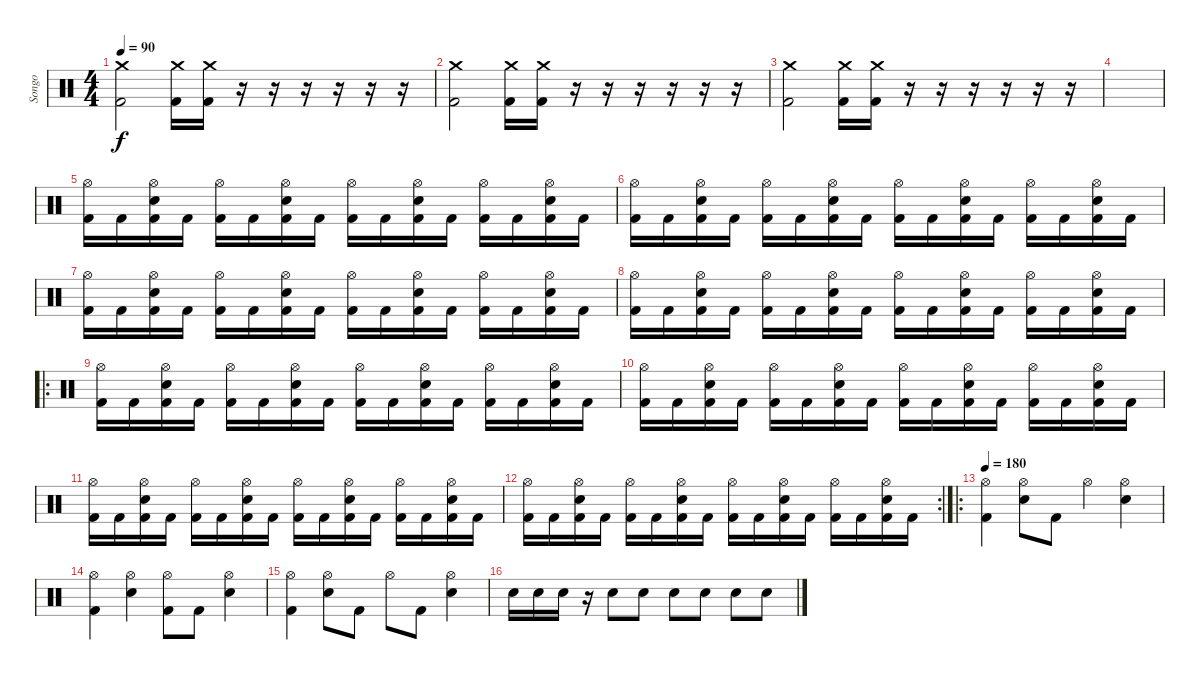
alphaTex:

\track ("Songo" "Songo") {instrument percussion}
\staff {score}
\articulation defaults
\ts (4 4)
\tempo 90
\clef neutral
\ks c
("Crash medium (hit)" "Kick (hit) 2").2{dy f} ("Crash medium (hit)" "Kick (hit) 2").16 ("Crash medium (hit)" "Kick (hit) 2").16 r.16 r.16 r.16 r.16 r.16 r.16 |
("Crash medium (hit)" "Kick (hit) 2").2 ("Crash medium (hit)" "Kick (hit) 2").16 ("Crash medium (hit)" "Kick (hit) 2").16 r.16 r.16 r.16 r.16 r.16 r.16 |
("Crash medium (hit)" "Kick (hit) 2").2 ("Crash medium (hit)" "Kick (hit) 2").16 ("Crash medium (hit)" "Kick (hit) 2").16 r.16 r.16 r.16 r.16 r.16 r.16 |
|
("Hi-Hat (open)" "Kick (hit) 2").16 "Kick (hit) 2".16 ("Kick (hit) 2" "Snare (hit) 2" "Hi-Hat (open)").16 "Kick (hit) 2".16 ("Kick (hit) 2" "Hi-Hat (open)").16 "Kick (hit) 2".16 ("Kick (hit) 2" "Snare (hit) 2" "Hi-Hat (open)").16 "Kick (hit) 2".16 ("Kick (hit) 2" "Hi-Hat (open)").16 "Kick (hit) 2".16 ("Kick (hit) 2" "Snare (hit) 2" "Hi-Hat (open)").16 "Kick (hit) 2".16 ("Kick (hit) 2" "Hi-Hat (open)").16 "Kick (hit) 2".16 ("Kick (hit) 2" "Snare (hit) 2" "Hi-Hat (open)").16 "Kick (hit) 2".16 |
("Hi-Hat (open)" "Kick (hit) 2").16 "Kick (hit) 2".16 ("Kick (hit) 2" "Snare (hit) 2" "Hi-Hat (open)").16 "Kick (hit) 2".16 ("Kick (hit) 2" "Hi-Hat (open)").16 "Kick (hit) 2".16 ("Kick (hit) 2" "Snare (hit) 2" "Hi-Hat (open)").16 "Kick (hit) 2".16 ("Kick (hit) 2" "Hi-Hat (open)").16 "Kick (hit) 2".16 ("Kick (hit) 2" "Snare (hit) 2" "Hi-Hat (open)").16 "Kick (hit) 2".16 ("Kick (hit) 2" "Hi-Hat (open)").16 "Kick (hit) 2".16 ("Kick (hit) 2" "Snare (hit) 2" "Hi-Hat (open)").16 "Kick (hit) 2".16 |
("Hi-Hat (open)" "Kick (hit) 2").16 "Kick (hit) 2".16 ("Kick (hit) 2" "Snare (hit) 2" "Hi-Hat (open)").16 "Kick (hit) 2".16 ("Kick (hit) 2" "Hi-Hat (open)").16 "Kick (hit) 2".16 ("Kick (hit) 2" "Snare (hit) 2" "Hi-Hat (open)").16 "Kick (hit) 2".16 ("Kick (hit) 2" "Hi-Hat (open)").16 "Kick (hit) 2".16 ("Kick (hit) 2" "Snare (hit) 2" "Hi-Hat (open)").16 "Kick (hit) 2".16 ("Kick (hit) 2" "Hi-Hat (open)").16 "Kick (hit) 2".16 ("Kick (hit) 2" "Snare (hit) 2" "Hi-Hat (open)").16 "Kick (hit) 2".16 |
("Hi-Hat (open)" "Kick (hit) 2").16 "Kick (hit) 2".16 ("Kick (hit) 2" "Snare (hit) 2" "Hi-Hat (open)").16 "Kick (hit) 2".16 ("Kick (hit) 2" "Hi-Hat (open)").16 "Kick (hit) 2".16 ("Kick (hit) 2" "Snare (hit) 2" "Hi-Hat (open)").16 "Kick (hit) 2".16 ("Kick (hit) 2" "Hi-Hat (open)").16 "Kick (hit) 2".16 ("Kick (hit) 2" "Snare (hit) 2" "Hi-Hat (open)").16 "Kick (hit) 2".16 ("Kick (hit) 2" "Hi-Hat (open)").16 "Kick (hit) 2".16 ("Kick (hit) 2" "Snare (hit) 2" "Hi-Hat (open)").16 "Kick (hit) 2".16 |
\ro
("Hi-Hat (open)" "Kick (hit) 2").16 "Kick (hit) 2".16 ("Kick (hit) 2" "Snare (hit) 2" "Hi-Hat (open)").16 "Kick (hit) 2".16 ("Kick (hit) 2" "Hi-Hat (open)").16 "Kick (hit) 2".16 ("Kick (hit) 2" "Snare (hit) 2" "Hi-Hat (open)").16 "Kick (hit) 2".16 ("Kick (hit) 2" "Hi-Hat (open)").16 "Kick (hit) 2".16 ("Kick (hit) 2" "Snare (hit) 2" "Hi-Hat (open)").16 "Kick (hit) 2".16 ("Kick (hit) 2" "Hi-Hat (open)").16 "Kick (hit) 2".16 ("Kick (hit) 2" "Snare (hit) 2" "Hi-Hat (open)").16 "Kick (hit) 2".16 |
("Hi-Hat (open)" "Kick (hit) 2").16 "Kick (hit) 2".16 ("Kick (hit) 2" "Snare (hit) 2" "Hi-Hat (open)").16 "Kick (hit) 2".16 ("Kick (hit) 2" "Hi-Hat (open)").16 "Kick (hit) 2".16 ("Kick (hit) 2" "Snare (hit) 2" "Hi-Hat (open)").16 "Kick (hit) 2".16 ("Kick (hit) 2" "Hi-Hat (open)").16 "Kick (hit) 2".16 ("Kick (hit) 2" "Snare (hit) 2" "Hi-Hat (open)").16 "Kick (hit) 2".16 ("Kick (hit) 2" "Hi-Hat (open)").16 "Kick (hit) 2".16 ("Kick (hit) 2" "Snare (hit) 2" "Hi-Hat (open)").16 "Kick (hit) 2".16 |
("Hi-Hat (open)" "Kick (hit) 2").16 "Kick (hit) 2".16 ("Kick (hit) 2" "Snare (hit) 2" "Hi-Hat (open)").16 "Kick (hit) 2".16 ("Kick (hit) 2" "Hi-Hat (open)").16 "Kick (hit) 2".16 ("Kick (hit) 2" "Snare (hit) 2" "Hi-Hat (open)").16 "Kick (hit) 2".16 ("Kick (hit) 2" "Hi-Hat (open)").16 "Kick (hit) 2".16 ("Kick (hit) 2" "Snare (hit) 2" "Hi-Hat (open)").16 "Kick (hit) 2".16 ("Kick (hit) 2" "Hi-Hat (open)").16 "Kick (hit) 2".16 ("Kick (hit) 2" "Snare (hit) 2" "Hi-Hat (open)").16 "Kick (hit) 2".16 |
\rc 2
("Hi-Hat (open)" "Kick (hit) 2").16 "Kick (hit) 2".16 ("Kick (hit) 2" "Snare (hit) 2" "Hi-Hat (open)").16 "Kick (hit) 2".16 ("Kick (hit) 2" "Hi-Hat (open)").16 "Kick (hit) 2".16 ("Kick (hit) 2" "Snare (hit) 2" "Hi-Hat (open)").16 "Kick (hit) 2".16 ("Kick (hit) 2" "Hi-Hat (open)").16 "Kick (hit) 2".16 ("Kick (hit) 2" "Snare (hit) 2" "Hi-Hat (open)").16 "Kick (hit) 2".16 ("Kick (hit) 2" "Hi-Hat (open)").16 "Kick (hit) 2".16 ("Kick (hit) 2" "Snare (hit) 2" "Hi-Hat (open)").16 "Kick (hit) 2".16 |
\ro
\tempo 180
("Hi-Hat (open)" "Kick (hit) 2").4 ("Hi-Hat (open)" "Electric Snare (hit)").8 "Kick (hit) 2".8 "Hi-Hat (open)".4 ("Hi-Hat (open)" "Electric Snare (hit)").4 |
("Hi-Hat (open)" "Kick (hit) 2").4 ("Hi-Hat (open)" "Electric Snare (hit)").4 ("Hi-Hat (open)" "Kick (hit) 2").8 "Kick (hit) 2".8 ("Hi-Hat (open)" "Electric Snare (hit)").4 |
("Hi-Hat (open)" "Kick (hit) 2").4 ("Hi-Hat (open)" "Electric Snare (hit)").8 "Kick (hit) 2".8 "Hi-Hat (open)".8 "Kick (hit) 2".8 ("Hi-Hat (open)" "Electric Snare (hit)").4 |
"Electric Snare (hit)".16 "Electric Snare (hit)".16 "Electric Snare (hit)".16 r.16 "Electric Snare (hit)".8 "Electric Snare (hit)".8 "Electric Snare (hit)".8 "Electric Snare (hit)".8 "Electric Snare (hit)".8 "Electric Snare (hit)".8
